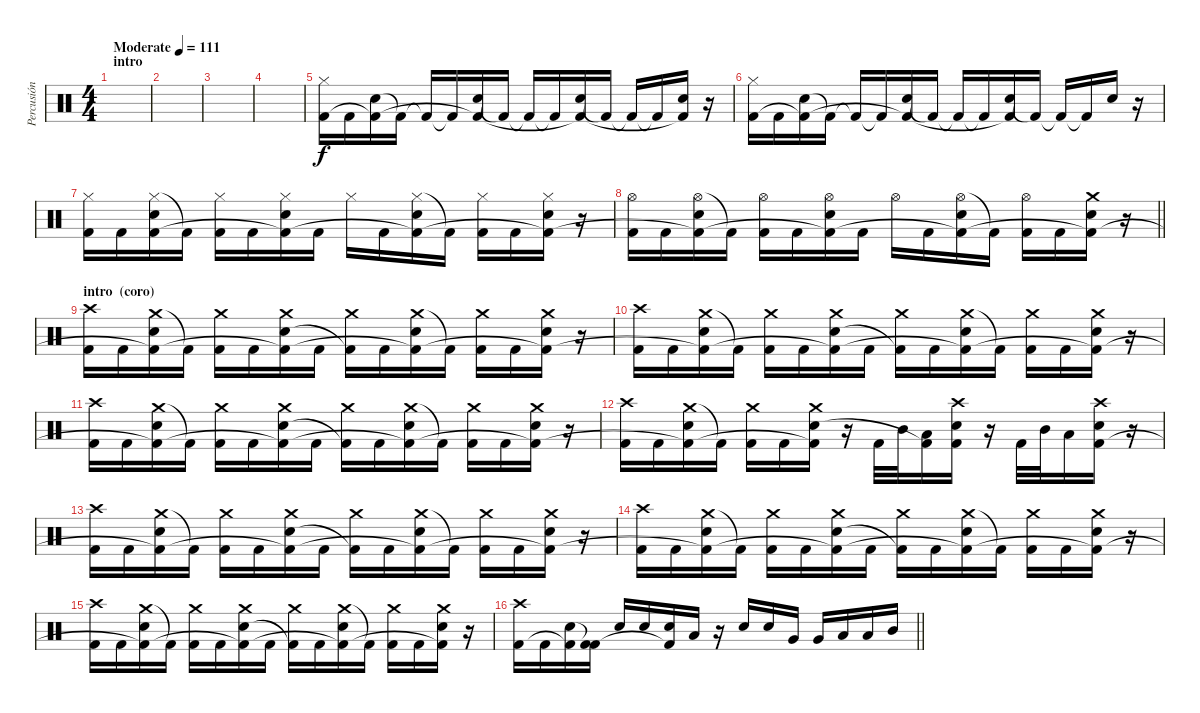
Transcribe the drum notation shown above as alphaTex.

\track ("Percusión" "Percusión") {instrument percussion}
\staff {score}
\articulation defaults
\ts (4 4)
\section ("" "intro")
\tempo (111 "Moderate")
\clef neutral
\ks c
|
|
|
|
("Hi-Hat (closed)" "Kick (hit) 2").16 "Kick (hit) 2".16 ("Electric Snare (hit)" "Kick (hit) 2"{t}).16 "Kick (hit) 2"{t}.16 "Kick (hit) 2"{t}.16 "Kick (hit) 2"{t}.16 ("Electric Snare (hit)" "Kick (hit) 2"{t}).16 "Kick (hit) 2"{t}.16 "Kick (hit) 2"{t}.16 "Kick (hit) 2"{t}.16 ("Electric Snare (hit)" "Kick (hit) 2"{t}).16 "Kick (hit) 2"{t}.16 "Kick (hit) 2"{t}.16 "Kick (hit) 2"{t}.16 ("Electric Snare (hit)" "Kick (hit) 2"{t}).16 r.16 |
("Hi-Hat (closed)" "Kick (hit) 2").16 "Kick (hit) 2".16 ("Electric Snare (hit)" "Kick (hit) 2"{t}).16 "Kick (hit) 2"{t}.16 "Kick (hit) 2"{t}.16 "Kick (hit) 2"{t}.16 ("Electric Snare (hit)" "Kick (hit) 2"{t}).16 "Kick (hit) 2"{t}.16 "Kick (hit) 2"{t}.16 "Kick (hit) 2"{t}.16 ("Electric Snare (hit)" "Kick (hit) 2"{t}).16 "Kick (hit) 2"{t}.16 "Kick (hit) 2"{t}.16 "Kick (hit) 2"{t}.16 "Electric Snare (hit)".16 r.16 |
("Hi-Hat (closed)" "Kick (hit) 2").16 "Kick (hit) 2".16 ("Hi-Hat (closed)" "Electric Snare (hit)" "Kick (hit) 2").16 "Kick (hit) 2"{t}.16 ("Hi-Hat (closed)" "Kick (hit) 2").16 "Kick (hit) 2".16 ("Hi-Hat (closed)" "Electric Snare (hit)" "Kick (hit) 2"{t}).16 "Kick (hit) 2".16 "Hi-Hat (closed)".16 "Kick (hit) 2".16 ("Hi-Hat (closed)" "Electric Snare (hit)" "Kick (hit) 2"{t}).16 "Kick (hit) 2"{t}.16 ("Hi-Hat (closed)" "Kick (hit) 2").16 "Kick (hit) 2".16 ("Hi-Hat (closed)" "Electric Snare (hit)" "Kick (hit) 2"{t}).16 r.16 |
\barLineRight lightlight
("Hi-Hat (open)" "Kick (hit) 2").16 "Kick (hit) 2".16 ("Hi-Hat (open)" "Electric Snare (hit)" "Kick (hit) 2"{t}).16 "Kick (hit) 2"{t}.16 ("Hi-Hat (open)" "Kick (hit) 2").16 "Kick (hit) 2".16 ("Hi-Hat (open)" "Electric Snare (hit)" "Kick (hit) 2"{t}).16 "Kick (hit) 2".16 "Hi-Hat (open)".16 "Kick (hit) 2".16 ("Hi-Hat (open)" "Electric Snare (hit)" "Kick (hit) 2"{t}).16 "Kick (hit) 2"{t}.16 ("Hi-Hat (open)" "Kick (hit) 2").16 "Kick (hit) 2".16 ("Crash medium (hit)" "Electric Snare (hit)" "Kick (hit) 2"{t}).16 r.16 |
\section ("" "intro  (coro)")
("Crash high (hit)" "Kick (hit) 2").16 "Kick (hit) 2".16 ("Crash medium (hit)" "Electric Snare (hit)" "Kick (hit) 2"{t}).16 "Kick (hit) 2"{t}.16 ("Crash medium (hit)" "Kick (hit) 2").16 "Kick (hit) 2".16 ("Crash medium (hit)" "Electric Snare (hit)" "Kick (hit) 2"{t}).16 "Kick (hit) 2".16 ("Crash medium (hit)" "Kick (hit) 2"{t}).16 "Kick (hit) 2".16 ("Crash medium (hit)" "Electric Snare (hit)" "Kick (hit) 2"{t}).16 "Kick (hit) 2"{t}.16 ("Crash medium (hit)" "Kick (hit) 2").16 "Kick (hit) 2".16 ("Crash medium (hit)" "Electric Snare (hit)" "Kick (hit) 2"{t}).16 r.16 |
("Crash high (hit)" "Kick (hit) 2").16 "Kick (hit) 2".16 ("Crash medium (hit)" "Electric Snare (hit)" "Kick (hit) 2"{t}).16 "Kick (hit) 2"{t}.16 ("Crash medium (hit)" "Kick (hit) 2").16 "Kick (hit) 2".16 ("Crash medium (hit)" "Electric Snare (hit)" "Kick (hit) 2"{t}).16 "Kick (hit) 2".16 ("Crash medium (hit)" "Kick (hit) 2"{t}).16 "Kick (hit) 2".16 ("Crash medium (hit)" "Electric Snare (hit)" "Kick (hit) 2"{t}).16 "Kick (hit) 2"{t}.16 ("Crash medium (hit)" "Kick (hit) 2").16 "Kick (hit) 2".16 ("Crash medium (hit)" "Electric Snare (hit)" "Kick (hit) 2"{t}).16 r.16 |
("Crash high (hit)" "Kick (hit) 2").16 "Kick (hit) 2".16 ("Crash medium (hit)" "Electric Snare (hit)" "Kick (hit) 2"{t}).16 "Kick (hit) 2"{t}.16 ("Crash medium (hit)" "Kick (hit) 2").16 "Kick (hit) 2".16 ("Crash medium (hit)" "Electric Snare (hit)" "Kick (hit) 2"{t}).16 "Kick (hit) 2".16 ("Crash medium (hit)" "Kick (hit) 2"{t}).16 "Kick (hit) 2".16 ("Crash medium (hit)" "Electric Snare (hit)" "Kick (hit) 2"{t}).16 "Kick (hit) 2"{t}.16 ("Crash medium (hit)" "Kick (hit) 2").16 "Kick (hit) 2".16 ("Crash medium (hit)" "Electric Snare (hit)" "Kick (hit) 2"{t}).16 r.16 |
("Crash high (hit)" "Kick (hit) 2").16 "Kick (hit) 2".16 ("Crash medium (hit)" "Electric Snare (hit)" "Kick (hit) 2"{t}).16 "Kick (hit) 2"{t}.16 ("Crash medium (hit)" "Kick (hit) 2").16 "Kick (hit) 2".16 ("Crash medium (hit)" "Electric Snare (hit)" "Kick (hit) 2"{t}).16 r.16 "Kick (hit) 2".32 "Mid Tom (hit)".32 ("Low Tom (hit)" "Kick (hit) 2"{t}).16 ("Crash high (hit)" "Electric Snare (hit)" "Kick (hit) 2").16 r.16 "Kick (hit) 2".32 "Mid Tom (hit)".32 "Low Tom (hit)".16 ("Crash high (hit)" "Electric Snare (hit)" "Kick (hit) 2").16 r.16 |
("Crash high (hit)" "Kick (hit) 2").16 "Kick (hit) 2".16 ("Crash medium (hit)" "Electric Snare (hit)" "Kick (hit) 2"{t}).16 "Kick (hit) 2"{t}.16 ("Crash medium (hit)" "Kick (hit) 2").16 "Kick (hit) 2".16 ("Crash medium (hit)" "Electric Snare (hit)" "Kick (hit) 2"{t}).16 "Kick (hit) 2".16 ("Crash medium (hit)" "Kick (hit) 2"{t}).16 "Kick (hit) 2".16 ("Crash medium (hit)" "Electric Snare (hit)" "Kick (hit) 2"{t}).16 "Kick (hit) 2"{t}.16 ("Crash medium (hit)" "Kick (hit) 2").16 "Kick (hit) 2".16 ("Crash medium (hit)" "Electric Snare (hit)" "Kick (hit) 2"{t}).16 r.16 |
("Crash high (hit)" "Kick (hit) 2").16 "Kick (hit) 2".16 ("Crash medium (hit)" "Electric Snare (hit)" "Kick (hit) 2"{t}).16 "Kick (hit) 2"{t}.16 ("Crash medium (hit)" "Kick (hit) 2").16 "Kick (hit) 2".16 ("Crash medium (hit)" "Electric Snare (hit)" "Kick (hit) 2"{t}).16 "Kick (hit) 2".16 ("Crash medium (hit)" "Kick (hit) 2"{t}).16 "Kick (hit) 2".16 ("Crash medium (hit)" "Electric Snare (hit)" "Kick (hit) 2"{t}).16 "Kick (hit) 2"{t}.16 ("Crash medium (hit)" "Kick (hit) 2").16 "Kick (hit) 2".16 ("Crash medium (hit)" "Electric Snare (hit)" "Kick (hit) 2"{t}).16 r.16 |
("Crash high (hit)" "Kick (hit) 2").16 "Kick (hit) 2".16 ("Crash medium (hit)" "Electric Snare (hit)" "Kick (hit) 2"{t}).16 "Kick (hit) 2"{t}.16 ("Crash medium (hit)" "Kick (hit) 2").16 "Kick (hit) 2".16 ("Crash medium (hit)" "Electric Snare (hit)" "Kick (hit) 2"{t}).16 "Kick (hit) 2".16 ("Crash medium (hit)" "Kick (hit) 2"{t}).16 "Kick (hit) 2".16 ("Crash medium (hit)" "Electric Snare (hit)" "Kick (hit) 2"{t}).16 "Kick (hit) 2"{t}.16 ("Crash medium (hit)" "Kick (hit) 2").16 "Kick (hit) 2".16 ("Crash medium (hit)" "Electric Snare (hit)" "Kick (hit) 2"{t}).16 r.16 |
\barLineRight lightlight
("Crash high (hit)" "Kick (hit) 2").16 "Kick (hit) 2".16 ("Electric Snare (hit)" "Kick (hit) 2"{t}).16 ("Kick (hit) 2"{t} "Kick (hit) 2").16 "Electric Snare (hit)".16 "Electric Snare (hit)".16 ("Electric Snare (hit)" "Kick (hit) 2"{t}).16 "Low Tom (hit)".16 r.16 "Electric Snare (hit)".16 "Electric Snare (hit)".16 "Very Low Tom (hit)".16 "Very Low Tom (hit)".16 "Low Tom (hit)".16 "Low Tom (hit)".16 "Mid Tom (hit)".16
